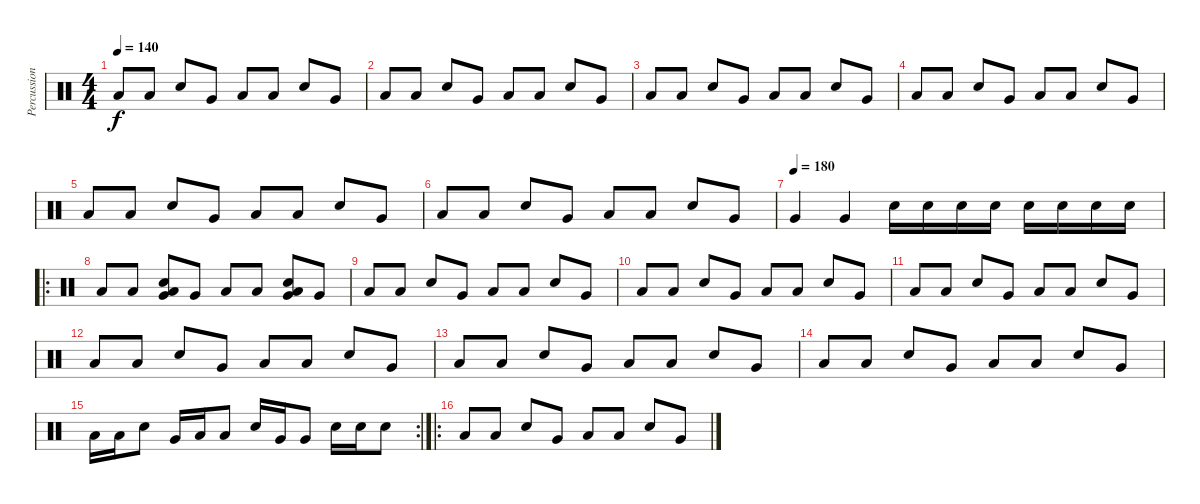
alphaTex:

\track ("Percussions" "Percussion") {instrument percussion}
\staff {score}
\articulation defaults
\ts (4 4)
\tempo 140
\clef neutral
\ks c "Low Floor Tom (hit)".8{dy f} "Low Floor Tom (hit)".8 "Electric Snare (hit)".8 "Very Low Tom (hit)".8 "Low Floor Tom (hit)".8 "Low Floor Tom (hit)".8 "Electric Snare (hit)".8 "Very Low Tom (hit)".8
|
"Low Floor Tom (hit)".8 "Low Floor Tom (hit)".8 "Electric Snare (hit)".8 "Very Low Tom (hit)".8 "Low Floor Tom (hit)".8 "Low Floor Tom (hit)".8 "Electric Snare (hit)".8 "Very Low Tom (hit)".8 |
"Low Floor Tom (hit)".8 "Low Floor Tom (hit)".8 "Electric Snare (hit)".8 "Very Low Tom (hit)".8 "Low Floor Tom (hit)".8 "Low Floor Tom (hit)".8 "Electric Snare (hit)".8 "Very Low Tom (hit)".8 |
"Low Floor Tom (hit)".8 "Low Floor Tom (hit)".8 "Electric Snare (hit)".8 "Very Low Tom (hit)".8 "Low Floor Tom (hit)".8 "Low Floor Tom (hit)".8 "Electric Snare (hit)".8 "Very Low Tom (hit)".8 |
"Low Floor Tom (hit)".8 "Low Floor Tom (hit)".8 "Electric Snare (hit)".8 "Very Low Tom (hit)".8 "Low Floor Tom (hit)".8 "Low Floor Tom (hit)".8 "Electric Snare (hit)".8 "Very Low Tom (hit)".8 |
"Low Floor Tom (hit)".8 "Low Floor Tom (hit)".8 "Electric Snare (hit)".8 "Very Low Tom (hit)".8 "Low Floor Tom (hit)".8 "Low Floor Tom (hit)".8 "Electric Snare (hit)".8 "Very Low Tom (hit)".8 |
\tempo (180)
"Very Low Tom (hit)".4 "Very Low Tom (hit)".4 "Electric Snare (hit)".16 "Electric Snare (hit)".16 "Electric Snare (hit)".16 "Electric Snare (hit)".16 "Electric Snare (hit)".16 "Electric Snare (hit)".16 "Electric Snare (hit)".16 "Electric Snare (hit)".16 |
\ro "Low Floor Tom (hit)".8 "Low Floor Tom (hit)".8
("Low Floor Tom (hit)" "Electric Snare (hit)" "Very Low Tom (hit)").8 "Very Low Tom (hit)".8 "Low Floor Tom (hit)".8 "Low Floor Tom (hit)".8 ("Low Floor Tom (hit)" "Electric Snare (hit)" "Very Low Tom (hit)").8 "Very Low Tom (hit)".8 |
"Low Floor Tom (hit)".8 "Low Floor Tom (hit)".8 "Electric Snare (hit)".8 "Very Low Tom (hit)".8 "Low Floor Tom (hit)".8 "Low Floor Tom (hit)".8 "Electric Snare (hit)".8 "Very Low Tom (hit)".8 |
"Low Floor Tom (hit)".8 "Low Floor Tom (hit)".8 "Electric Snare (hit)".8 "Very Low Tom (hit)".8 "Low Floor Tom (hit)".8 "Low Floor Tom (hit)".8 "Electric Snare (hit)".8 "Very Low Tom (hit)".8 |
"Low Floor Tom (hit)".8 "Low Floor Tom (hit)".8 "Electric Snare (hit)".8 "Very Low Tom (hit)".8 "Low Floor Tom (hit)".8 "Low Floor Tom (hit)".8 "Electric Snare (hit)".8 "Very Low Tom (hit)".8 |
"Low Floor Tom (hit)".8 "Low Floor Tom (hit)".8 "Electric Snare (hit)".8 "Very Low Tom (hit)".8 "Low Floor Tom (hit)".8 "Low Floor Tom (hit)".8 "Electric Snare (hit)".8 "Very Low Tom (hit)".8 |
"Low Floor Tom (hit)".8 "Low Floor Tom (hit)".8 "Electric Snare (hit)".8 "Very Low Tom (hit)".8 "Low Floor Tom (hit)".8 "Low Floor Tom (hit)".8 "Electric Snare (hit)".8 "Very Low Tom (hit)".8 |
"Low Floor Tom (hit)".8 "Low Floor Tom (hit)".8 "Electric Snare (hit)".8 "Very Low Tom (hit)".8 "Low Floor Tom (hit)".8 "Low Floor Tom (hit)".8 "Electric Snare (hit)".8 "Very Low Tom (hit)".8 |
\rc 2 "Low Floor Tom (hit)".16 "Low Floor Tom (hit)".16 "Electric Snare (hit)".8 "Very Low Tom (hit)".16 "Low Floor Tom (hit)".16 "Low Floor Tom (hit)".8 "Electric Snare (hit)".16 "Very Low Tom (hit)".16 "Very Low Tom (hit)".8 "Electric Snare (hit)".16 "Electric Snare (hit)".16 "Electric Snare (hit)".8
|
\ro "Low Floor Tom (hit)".8 "Low Floor Tom (hit)".8 "Electric Snare (hit)".8 "Very Low Tom (hit)".8 "Low Floor Tom (hit)".8 "Low Floor Tom (hit)".8 "Electric Snare (hit)".8 "Very Low Tom (hit)".8
